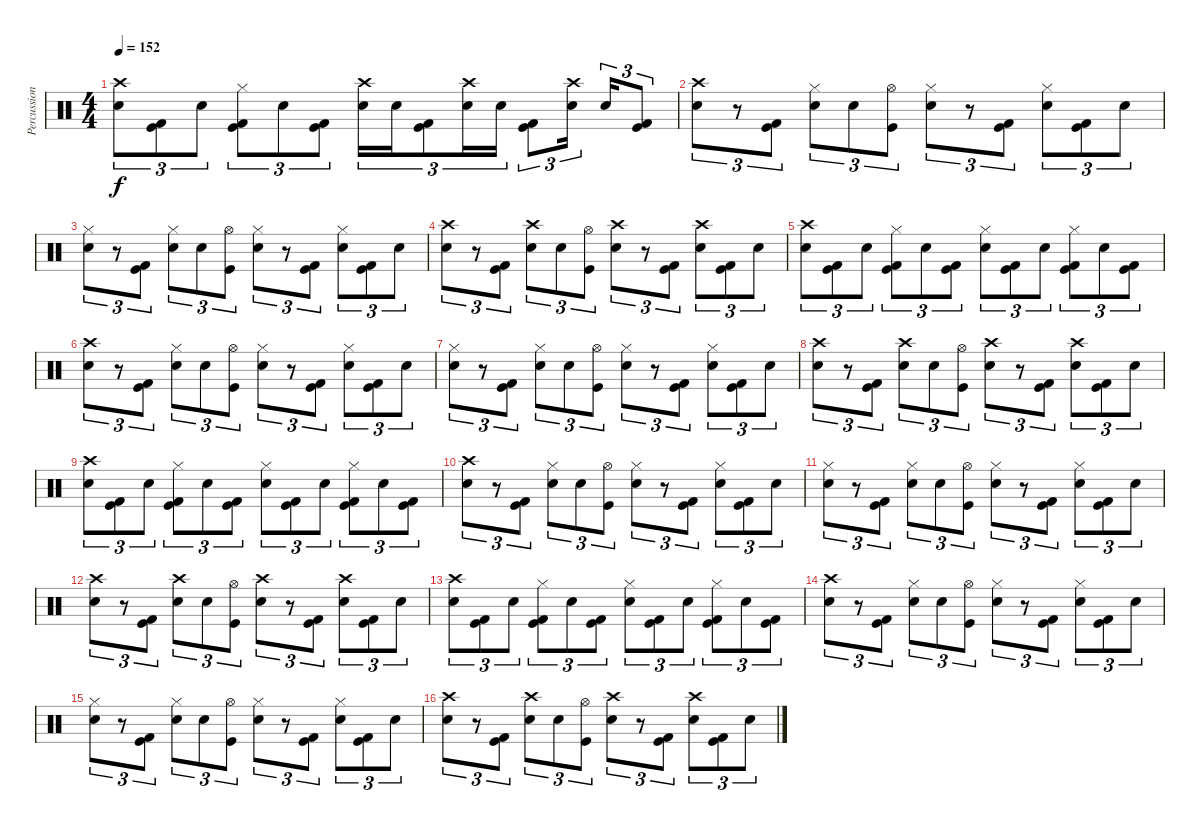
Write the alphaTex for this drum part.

\track ("Percussion" "Percussion") {instrument percussion}
\staff {score}
\articulation defaults
\ts (4 4)
\tempo 152
\clef neutral
\ks c
("Crash high (hit)" "Electric Snare (hit)").8{tu (3 2) dy f} ("Kick (hit) 2" "Kick (hit)").8{tu (3 2)} "Electric Snare (hit)".8{tu (3 2)} ("Hi-Hat (closed)" "Kick (hit) 2" "Kick (hit)").8{tu (3 2)} "Electric Snare (hit)".8{tu (3 2)} ("Kick (hit) 2" "Kick (hit)").8{tu (3 2)} ("Crash high (hit)" "Electric Snare (hit)").16{tu (3 2)} "Electric Snare (hit)".16{tu (3 2)} ("Kick (hit) 2" "Kick (hit)").8{tu (3 2)} ("Crash high (hit)" "Electric Snare (hit)").16{tu (3 2)} "Electric Snare (hit)".16{tu (3 2)} ("Kick (hit) 2" "Kick (hit)").8{tu (3 2)} ("Crash high (hit)" "Electric Snare (hit)").16{tu (3 2) beam splitsecondary} "Electric Snare (hit)".16{tu (3 2)} ("Kick (hit) 2" "Kick (hit)").8{tu (3 2)} |
("Crash high (hit)" "Electric Snare (hit)").8{tu (3 2)} r.8{tu (3 2)} ("Kick (hit) 2" "Kick (hit)").8{tu (3 2)} ("Hi-Hat (closed)" "Electric Snare (hit)").8{tu (3 2)} "Electric Snare (hit)".8{tu (3 2)} ("Hi-Hat (open)" "Kick (hit)").8{tu (3 2)} ("Hi-Hat (closed)" "Electric Snare (hit)").8{tu (3 2)} r.8{tu (3 2)} ("Kick (hit) 2" "Kick (hit)").8{tu (3 2)} ("Hi-Hat (closed)" "Electric Snare (hit)").8{tu (3 2)} ("Kick (hit) 2" "Kick (hit)").8{tu (3 2)} "Electric Snare (hit)".8{tu (3 2)} |
("Hi-Hat (closed)" "Electric Snare (hit)").8{tu (3 2)} r.8{tu (3 2)} ("Kick (hit) 2" "Kick (hit)").8{tu (3 2)} ("Hi-Hat (closed)" "Electric Snare (hit)").8{tu (3 2)} "Electric Snare (hit)".8{tu (3 2)} ("Hi-Hat (open)" "Kick (hit)").8{tu (3 2)} ("Hi-Hat (closed)" "Electric Snare (hit)").8{tu (3 2)} r.8{tu (3 2)} ("Kick (hit) 2" "Kick (hit)").8{tu (3 2)} ("Hi-Hat (closed)" "Electric Snare (hit)").8{tu (3 2)} ("Kick (hit) 2" "Kick (hit)").8{tu (3 2)} "Electric Snare (hit)".8{tu (3 2)} |
("Crash high (hit)" "Electric Snare (hit)").8{tu (3 2)} r.8{tu (3 2)} ("Kick (hit) 2" "Kick (hit)").8{tu (3 2)} ("Crash high (hit)" "Electric Snare (hit)").8{tu (3 2)} "Electric Snare (hit)".8{tu (3 2)} ("Hi-Hat (open)" "Kick (hit)").8{tu (3 2)} ("Crash high (hit)" "Electric Snare (hit)").8{tu (3 2)} r.8{tu (3 2)} ("Kick (hit) 2" "Kick (hit)").8{tu (3 2)} ("Crash high (hit)" "Electric Snare (hit)").8{tu (3 2)} ("Kick (hit) 2" "Kick (hit)").8{tu (3 2)} "Electric Snare (hit)".8{tu (3 2)} |
("Crash high (hit)" "Electric Snare (hit)").8{tu (3 2)} ("Kick (hit) 2" "Kick (hit)").8{tu (3 2)} "Electric Snare (hit)".8{tu (3 2)} ("Hi-Hat (closed)" "Kick (hit) 2" "Kick (hit)").8{tu (3 2)} "Electric Snare (hit)".8{tu (3 2)} ("Kick (hit) 2" "Kick (hit)").8{tu (3 2)} ("Hi-Hat (closed)" "Electric Snare (hit)").8{tu (3 2)} ("Kick (hit) 2" "Kick (hit)").8{tu (3 2)} "Electric Snare (hit)".8{tu (3 2)} ("Hi-Hat (closed)" "Kick (hit) 2" "Kick (hit)").8{tu (3 2)} "Electric Snare (hit)".8{tu (3 2)} ("Kick (hit) 2" "Kick (hit)").8{tu (3 2)} |
("Crash high (hit)" "Electric Snare (hit)").8{tu (3 2)} r.8{tu (3 2)} ("Kick (hit) 2" "Kick (hit)").8{tu (3 2)} ("Hi-Hat (closed)" "Electric Snare (hit)").8{tu (3 2)} "Electric Snare (hit)".8{tu (3 2)} ("Hi-Hat (open)" "Kick (hit)").8{tu (3 2)} ("Hi-Hat (closed)" "Electric Snare (hit)").8{tu (3 2)} r.8{tu (3 2)} ("Kick (hit) 2" "Kick (hit)").8{tu (3 2)} ("Hi-Hat (closed)" "Electric Snare (hit)").8{tu (3 2)} ("Kick (hit) 2" "Kick (hit)").8{tu (3 2)} "Electric Snare (hit)".8{tu (3 2)} |
("Hi-Hat (closed)" "Electric Snare (hit)").8{tu (3 2)} r.8{tu (3 2)} ("Kick (hit) 2" "Kick (hit)").8{tu (3 2)} ("Hi-Hat (closed)" "Electric Snare (hit)").8{tu (3 2)} "Electric Snare (hit)".8{tu (3 2)} ("Hi-Hat (open)" "Kick (hit)").8{tu (3 2)} ("Hi-Hat (closed)" "Electric Snare (hit)").8{tu (3 2)} r.8{tu (3 2)} ("Kick (hit) 2" "Kick (hit)").8{tu (3 2)} ("Hi-Hat (closed)" "Electric Snare (hit)").8{tu (3 2)} ("Kick (hit) 2" "Kick (hit)").8{tu (3 2)} "Electric Snare (hit)".8{tu (3 2)} |
("Crash high (hit)" "Electric Snare (hit)").8{tu (3 2)} r.8{tu (3 2)} ("Kick (hit) 2" "Kick (hit)").8{tu (3 2)} ("Crash high (hit)" "Electric Snare (hit)").8{tu (3 2)} "Electric Snare (hit)".8{tu (3 2)} ("Hi-Hat (open)" "Kick (hit)").8{tu (3 2)} ("Crash high (hit)" "Electric Snare (hit)").8{tu (3 2)} r.8{tu (3 2)} ("Kick (hit) 2" "Kick (hit)").8{tu (3 2)} ("Crash high (hit)" "Electric Snare (hit)").8{tu (3 2)} ("Kick (hit) 2" "Kick (hit)").8{tu (3 2)} "Electric Snare (hit)".8{tu (3 2)} |
("Crash high (hit)" "Electric Snare (hit)").8{tu (3 2)} ("Kick (hit) 2" "Kick (hit)").8{tu (3 2)} "Electric Snare (hit)".8{tu (3 2)} ("Hi-Hat (closed)" "Kick (hit) 2" "Kick (hit)").8{tu (3 2)} "Electric Snare (hit)".8{tu (3 2)} ("Kick (hit) 2" "Kick (hit)").8{tu (3 2)} ("Hi-Hat (closed)" "Electric Snare (hit)").8{tu (3 2)} ("Kick (hit) 2" "Kick (hit)").8{tu (3 2)} "Electric Snare (hit)".8{tu (3 2)} ("Hi-Hat (closed)" "Kick (hit) 2" "Kick (hit)").8{tu (3 2)} "Electric Snare (hit)".8{tu (3 2)} ("Kick (hit) 2" "Kick (hit)").8{tu (3 2)} |
("Crash high (hit)" "Electric Snare (hit)").8{tu (3 2)} r.8{tu (3 2)} ("Kick (hit) 2" "Kick (hit)").8{tu (3 2)} ("Hi-Hat (closed)" "Electric Snare (hit)").8{tu (3 2)} "Electric Snare (hit)".8{tu (3 2)} ("Hi-Hat (open)" "Kick (hit)").8{tu (3 2)} ("Hi-Hat (closed)" "Electric Snare (hit)").8{tu (3 2)} r.8{tu (3 2)} ("Kick (hit) 2" "Kick (hit)").8{tu (3 2)} ("Hi-Hat (closed)" "Electric Snare (hit)").8{tu (3 2)} ("Kick (hit) 2" "Kick (hit)").8{tu (3 2)} "Electric Snare (hit)".8{tu (3 2)} |
("Hi-Hat (closed)" "Electric Snare (hit)").8{tu (3 2)} r.8{tu (3 2)} ("Kick (hit) 2" "Kick (hit)").8{tu (3 2)} ("Hi-Hat (closed)" "Electric Snare (hit)").8{tu (3 2)} "Electric Snare (hit)".8{tu (3 2)} ("Hi-Hat (open)" "Kick (hit)").8{tu (3 2)} ("Hi-Hat (closed)" "Electric Snare (hit)").8{tu (3 2)} r.8{tu (3 2)} ("Kick (hit) 2" "Kick (hit)").8{tu (3 2)} ("Hi-Hat (closed)" "Electric Snare (hit)").8{tu (3 2)} ("Kick (hit) 2" "Kick (hit)").8{tu (3 2)} "Electric Snare (hit)".8{tu (3 2)} |
("Crash high (hit)" "Electric Snare (hit)").8{tu (3 2)} r.8{tu (3 2)} ("Kick (hit) 2" "Kick (hit)").8{tu (3 2)} ("Crash high (hit)" "Electric Snare (hit)").8{tu (3 2)} "Electric Snare (hit)".8{tu (3 2)} ("Hi-Hat (open)" "Kick (hit)").8{tu (3 2)} ("Crash high (hit)" "Electric Snare (hit)").8{tu (3 2)} r.8{tu (3 2)} ("Kick (hit) 2" "Kick (hit)").8{tu (3 2)} ("Crash high (hit)" "Electric Snare (hit)").8{tu (3 2)} ("Kick (hit) 2" "Kick (hit)").8{tu (3 2)} "Electric Snare (hit)".8{tu (3 2)} |
("Crash high (hit)" "Electric Snare (hit)").8{tu (3 2)} ("Kick (hit) 2" "Kick (hit)").8{tu (3 2)} "Electric Snare (hit)".8{tu (3 2)} ("Hi-Hat (closed)" "Kick (hit) 2" "Kick (hit)").8{tu (3 2)} "Electric Snare (hit)".8{tu (3 2)} ("Kick (hit) 2" "Kick (hit)").8{tu (3 2)} ("Hi-Hat (closed)" "Electric Snare (hit)").8{tu (3 2)} ("Kick (hit) 2" "Kick (hit)").8{tu (3 2)} "Electric Snare (hit)".8{tu (3 2)} ("Hi-Hat (closed)" "Kick (hit) 2" "Kick (hit)").8{tu (3 2)} "Electric Snare (hit)".8{tu (3 2)} ("Kick (hit) 2" "Kick (hit)").8{tu (3 2)} |
("Crash high (hit)" "Electric Snare (hit)").8{tu (3 2)} r.8{tu (3 2)} ("Kick (hit) 2" "Kick (hit)").8{tu (3 2)} ("Hi-Hat (closed)" "Electric Snare (hit)").8{tu (3 2)} "Electric Snare (hit)".8{tu (3 2)} ("Hi-Hat (open)" "Kick (hit)").8{tu (3 2)} ("Hi-Hat (closed)" "Electric Snare (hit)").8{tu (3 2)} r.8{tu (3 2)} ("Kick (hit) 2" "Kick (hit)").8{tu (3 2)} ("Hi-Hat (closed)" "Electric Snare (hit)").8{tu (3 2)} ("Kick (hit) 2" "Kick (hit)").8{tu (3 2)} "Electric Snare (hit)".8{tu (3 2)} |
("Hi-Hat (closed)" "Electric Snare (hit)").8{tu (3 2)} r.8{tu (3 2)} ("Kick (hit) 2" "Kick (hit)").8{tu (3 2)} ("Hi-Hat (closed)" "Electric Snare (hit)").8{tu (3 2)} "Electric Snare (hit)".8{tu (3 2)} ("Hi-Hat (open)" "Kick (hit)").8{tu (3 2)} ("Hi-Hat (closed)" "Electric Snare (hit)").8{tu (3 2)} r.8{tu (3 2)} ("Kick (hit) 2" "Kick (hit)").8{tu (3 2)} ("Hi-Hat (closed)" "Electric Snare (hit)").8{tu (3 2)} ("Kick (hit) 2" "Kick (hit)").8{tu (3 2)} "Electric Snare (hit)".8{tu (3 2)} |
("Crash high (hit)" "Electric Snare (hit)").8{tu (3 2)} r.8{tu (3 2)} ("Kick (hit) 2" "Kick (hit)").8{tu (3 2)} ("Crash high (hit)" "Electric Snare (hit)").8{tu (3 2)} "Electric Snare (hit)".8{tu (3 2)} ("Hi-Hat (open)" "Kick (hit)").8{tu (3 2)} ("Crash high (hit)" "Electric Snare (hit)").8{tu (3 2)} r.8{tu (3 2)} ("Kick (hit) 2" "Kick (hit)").8{tu (3 2)} ("Crash high (hit)" "Electric Snare (hit)").8{tu (3 2)} ("Kick (hit) 2" "Kick (hit)").8{tu (3 2)} "Electric Snare (hit)".8{tu (3 2)}
